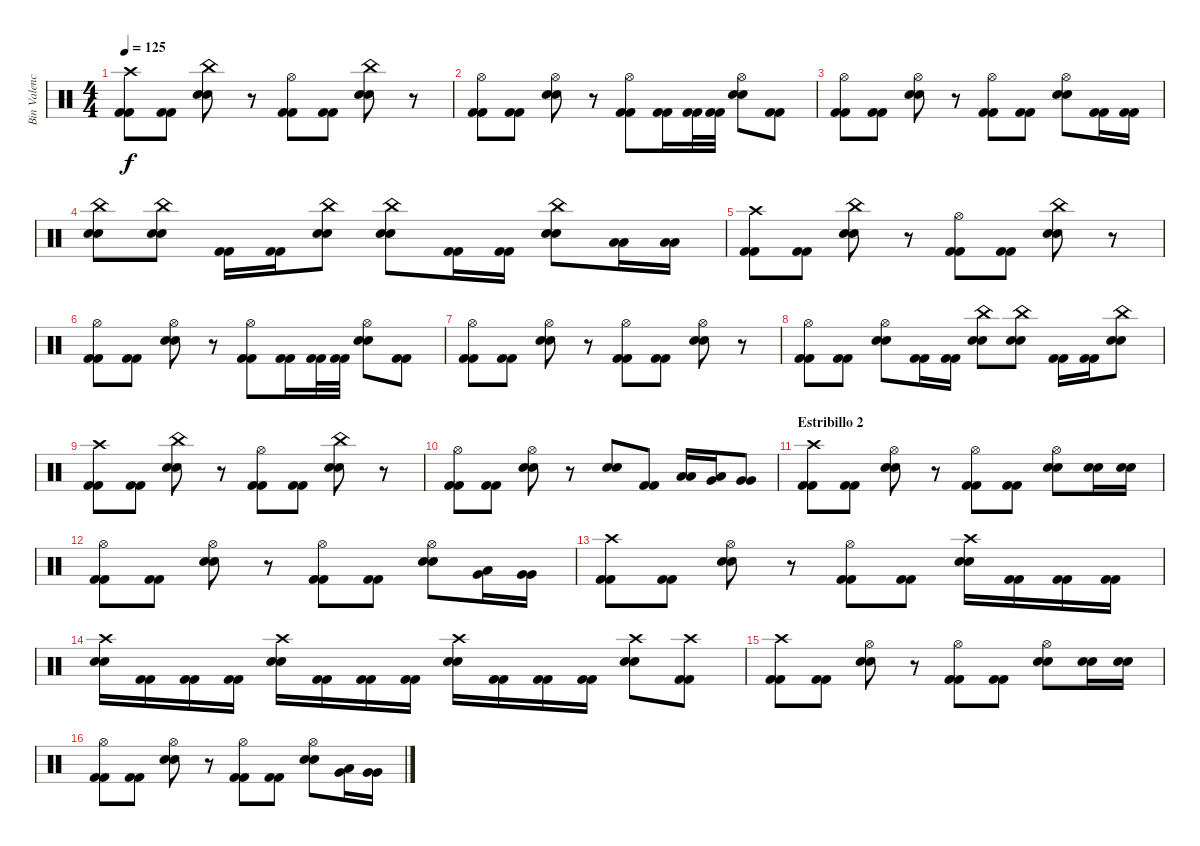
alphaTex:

\track ("Bin Valencia (Bateria)" "Bin Valenc") {instrument percussion}
\staff {score}
\articulation defaults
\ts (4 4)
\tempo 125
\clef neutral
\ks c
("Crash high (hit)" "Kick (hit) 2" "Kick (hit) 2").8{dy f} ("Kick (hit) 2" "Kick (hit) 2").8 ("China (hit)" "Snare (hit) 2" "Snare (hit) 2").8 r.8 ("Hi-Hat (open)" "Kick (hit) 2" "Kick (hit) 2").8 ("Kick (hit) 2" "Kick (hit) 2").8 ("China (hit)" "Snare (hit) 2" "Snare (hit) 2").8 r.8 |
("Hi-Hat (open)" "Kick (hit) 2" "Kick (hit) 2").8 ("Kick (hit) 2" "Kick (hit) 2").8 ("Hi-Hat (open)" "Snare (hit) 2" "Snare (hit) 2").8 r.8 ("Hi-Hat (open)" "Kick (hit) 2" "Kick (hit) 2").8 ("Kick (hit) 2" "Kick (hit) 2").16 ("Kick (hit) 2" "Kick (hit) 2").32 ("Kick (hit) 2" "Kick (hit) 2").32 ("Hi-Hat (open)" "Snare (hit) 2" "Snare (hit) 2").8 ("Kick (hit) 2" "Kick (hit) 2").8 |
("Hi-Hat (open)" "Kick (hit) 2" "Kick (hit) 2").8 ("Kick (hit) 2" "Kick (hit) 2").8 ("Hi-Hat (open)" "Snare (hit) 2" "Snare (hit) 2").8 r.8 ("Hi-Hat (open)" "Kick (hit) 2" "Kick (hit) 2").8 ("Kick (hit) 2" "Kick (hit) 2").8 ("Hi-Hat (open)" "Snare (hit) 2" "Snare (hit) 2").8 ("Kick (hit) 2" "Kick (hit) 2").16 ("Kick (hit) 2" "Kick (hit) 2").16 |
("China (hit)" "Snare (hit) 2" "Snare (hit) 2").8 ("China (hit)" "Snare (hit) 2" "Snare (hit) 2").8 ("Kick (hit) 2" "Kick (hit) 2").16 ("Kick (hit) 2" "Kick (hit) 2").16 ("China (hit)" "Snare (hit) 2" "Snare (hit) 2").8 ("China (hit)" "Snare (hit) 2" "Snare (hit) 2").8 ("Kick (hit) 2" "Kick (hit) 2").16 ("Kick (hit) 2" "Kick (hit) 2").16 ("China (hit)" "Snare (hit) 2" "Snare (hit) 2").8 ("Low Tom (hit)" "Low Tom (hit)").16 ("Low Tom (hit)" "Low Tom (hit)").16 |
("Crash high (hit)" "Kick (hit) 2" "Kick (hit) 2").8 ("Kick (hit) 2" "Kick (hit) 2").8 ("China (hit)" "Snare (hit) 2" "Snare (hit) 2").8 r.8 ("Hi-Hat (open)" "Kick (hit) 2" "Kick (hit) 2").8 ("Kick (hit) 2" "Kick (hit) 2").8 ("China (hit)" "Snare (hit) 2" "Snare (hit) 2").8 r.8 |
("Hi-Hat (open)" "Kick (hit) 2" "Kick (hit) 2").8 ("Kick (hit) 2" "Kick (hit) 2").8 ("Hi-Hat (open)" "Snare (hit) 2" "Snare (hit) 2").8 r.8 ("Hi-Hat (open)" "Kick (hit) 2" "Kick (hit) 2").8 ("Kick (hit) 2" "Kick (hit) 2").16 ("Kick (hit) 2" "Kick (hit) 2").32 ("Kick (hit) 2" "Kick (hit) 2").32 ("Hi-Hat (open)" "Snare (hit) 2" "Snare (hit) 2").8 ("Kick (hit) 2" "Kick (hit) 2").8 |
("Hi-Hat (open)" "Kick (hit) 2" "Kick (hit) 2").8 ("Kick (hit) 2" "Kick (hit) 2").8 ("Hi-Hat (open)" "Snare (hit) 2" "Snare (hit) 2").8 r.8 ("Hi-Hat (open)" "Kick (hit) 2" "Kick (hit) 2").8 ("Kick (hit) 2" "Kick (hit) 2").8 ("Hi-Hat (open)" "Snare (hit) 2" "Snare (hit) 2").8 r.8 |
("Hi-Hat (open)" "Kick (hit) 2" "Kick (hit) 2").8 ("Kick (hit) 2" "Kick (hit) 2").8 ("Hi-Hat (open)" "Snare (hit) 2" "Snare (hit) 2").8 ("Kick (hit) 2" "Kick (hit) 2").16 ("Kick (hit) 2" "Kick (hit) 2").16 ("China (hit)" "Snare (hit) 2" "Snare (hit) 2").8 ("China (hit)" "Snare (hit) 2" "Snare (hit) 2").8 ("Kick (hit) 2" "Kick (hit) 2").16 ("Kick (hit) 2" "Kick (hit) 2").16 ("China (hit)" "Snare (hit) 2" "Snare (hit) 2").8 |
("Crash high (hit)" "Kick (hit) 2" "Kick (hit) 2").8 ("Kick (hit) 2" "Kick (hit) 2").8 ("China (hit)" "Snare (hit) 2" "Snare (hit) 2").8 r.8 ("Hi-Hat (open)" "Kick (hit) 2" "Kick (hit) 2").8 ("Kick (hit) 2" "Kick (hit) 2").8 ("China (hit)" "Snare (hit) 2" "Snare (hit) 2").8 r.8 |
("Hi-Hat (open)" "Kick (hit) 2" "Kick (hit) 2").8 ("Kick (hit) 2" "Kick (hit) 2").8 ("Hi-Hat (open)" "Snare (hit) 2" "Snare (hit) 2").8 r.8 ("Snare (hit) 2" "Snare (hit) 2").8 ("Kick (hit) 2" "Kick (hit) 2").8 ("Low Tom (hit)" "Low Tom (hit)").16 ("Very Low Tom (hit)" "Low Tom (hit)").16 ("Very Low Tom (hit)" "Very Low Tom (hit)").8 |
\section ("" "Estribillo 2")
("Crash high (hit)" "Kick (hit) 2" "Kick (hit) 2").8 ("Kick (hit) 2" "Kick (hit) 2").8 ("Hi-Hat (open)" "Snare (hit) 2" "Snare (hit) 2").8 r.8 ("Hi-Hat (open)" "Kick (hit) 2" "Kick (hit) 2").8 ("Kick (hit) 2" "Kick (hit) 2").8 ("Hi-Hat (open)" "Snare (hit) 2" "Snare (hit) 2").8 ("Snare (hit) 2" "Snare (hit) 2").16 ("Snare (hit) 2" "Snare (hit) 2").16 |
("Hi-Hat (open)" "Kick (hit) 2" "Kick (hit) 2").8 ("Kick (hit) 2" "Kick (hit) 2").8 ("Hi-Hat (open)" "Snare (hit) 2" "Snare (hit) 2").8 r.8 ("Hi-Hat (open)" "Kick (hit) 2" "Kick (hit) 2").8 ("Kick (hit) 2" "Kick (hit) 2").8 ("Hi-Hat (open)" "Snare (hit) 2" "Snare (hit) 2").8 ("Low Tom (hit)" "Very Low Tom (hit)").16 ("Very Low Tom (hit)" "Very Low Tom (hit)").16 |
("Crash high (hit)" "Kick (hit) 2" "Kick (hit) 2").8 ("Kick (hit) 2" "Kick (hit) 2").8 ("Hi-Hat (open)" "Snare (hit) 2" "Snare (hit) 2").8 r.8 ("Hi-Hat (open)" "Kick (hit) 2" "Kick (hit) 2").8 ("Kick (hit) 2" "Kick (hit) 2").8 ("Crash high (hit)" "Snare (hit) 2" "Snare (hit) 2").16 ("Kick (hit) 2" "Kick (hit) 2").16 ("Kick (hit) 2" "Kick (hit) 2").16 ("Kick (hit) 2" "Kick (hit) 2").16 |
("Crash high (hit)" "Snare (hit) 2" "Snare (hit) 2").16 ("Kick (hit) 2" "Kick (hit) 2").16 ("Kick (hit) 2" "Kick (hit) 2").16 ("Kick (hit) 2" "Kick (hit) 2").16 ("Crash high (hit)" "Snare (hit) 2" "Snare (hit) 2").16 ("Kick (hit) 2" "Kick (hit) 2").16 ("Kick (hit) 2" "Kick (hit) 2").16 ("Kick (hit) 2" "Kick (hit) 2").16 ("Crash high (hit)" "Snare (hit) 2" "Snare (hit) 2").16 ("Kick (hit) 2" "Kick (hit) 2").16 ("Kick (hit) 2" "Kick (hit) 2").16 ("Kick (hit) 2" "Kick (hit) 2").16 ("Crash high (hit)" "Snare (hit) 2" "Snare (hit) 2").8 ("Crash high (hit)" "Kick (hit) 2" "Kick (hit) 2").8 |
("Crash high (hit)" "Kick (hit) 2" "Kick (hit) 2").8 ("Kick (hit) 2" "Kick (hit) 2").8 ("Hi-Hat (open)" "Snare (hit) 2" "Snare (hit) 2").8 r.8 ("Hi-Hat (open)" "Kick (hit) 2" "Kick (hit) 2").8 ("Kick (hit) 2" "Kick (hit) 2").8 ("Hi-Hat (open)" "Snare (hit) 2" "Snare (hit) 2").8 ("Snare (hit) 2" "Snare (hit) 2").16 ("Snare (hit) 2" "Snare (hit) 2").16 |
("Hi-Hat (open)" "Kick (hit) 2" "Kick (hit) 2").8 ("Kick (hit) 2" "Kick (hit) 2").8 ("Hi-Hat (open)" "Snare (hit) 2" "Snare (hit) 2").8 r.8 ("Hi-Hat (open)" "Kick (hit) 2" "Kick (hit) 2").8 ("Kick (hit) 2" "Kick (hit) 2").8 ("Hi-Hat (open)" "Snare (hit) 2" "Snare (hit) 2").8 ("Low Tom (hit)" "Very Low Tom (hit)").16 ("Very Low Tom (hit)" "Very Low Tom (hit)").16
